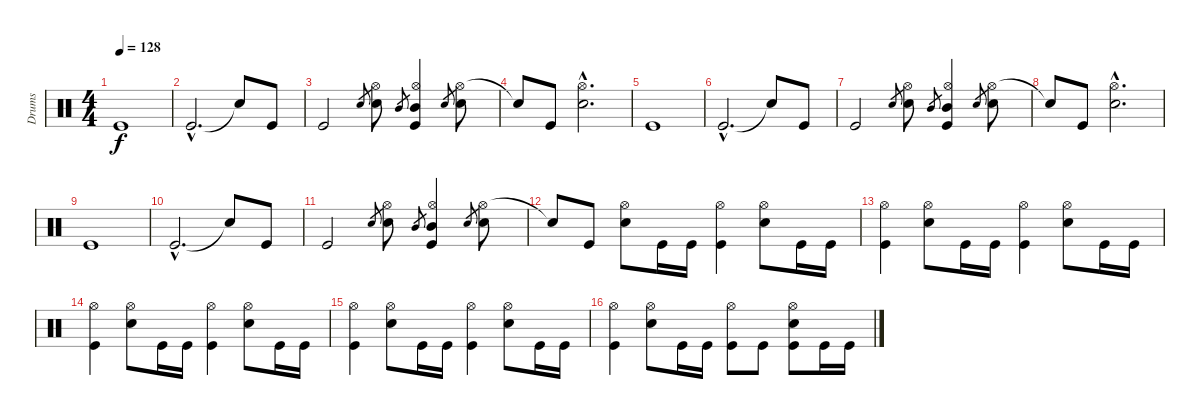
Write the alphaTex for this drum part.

\track ("Drums" "Drums") {instrument percussion}
\staff {score}
\articulation defaults
\ts (4 4)
\tempo 128
\clef neutral
\ks c "Kick (hit)".1{dy f}
|
"Kick (hit)"{hac}.2{d} "Snare (hit)"{t}.8 "Kick (hit)".8 |
"Kick (hit)".2 "Snare (hit) 2".8{gr} ("Hi-Hat (open)" "Snare (hit) 2").8 "Mid Tom (hit)".8{gr} ("Hi-Hat (open)" "Mid Tom (hit)" "Kick (hit)").4 "Snare (hit) 2".8{gr} ("Hi-Hat (open)" "Snare (hit) 2").8 |
"Snare (hit)"{t}.8 "Kick (hit)".8 ("Hi-Hat (open)"{hac} "Snare (hit) 2"{hac}).2{d} |
"Kick (hit)".1 |
"Kick (hit)"{hac}.2{d} "Snare (hit)"{t}.8 "Kick (hit)".8 |
"Kick (hit)".2 "Snare (hit) 2".8{gr} ("Hi-Hat (open)" "Snare (hit) 2").8 "Mid Tom (hit)".8{gr} ("Hi-Hat (open)" "Mid Tom (hit)" "Kick (hit)").4 "Snare (hit) 2".8{gr} ("Hi-Hat (open)" "Snare (hit) 2").8 |
"Snare (hit)"{t}.8 "Kick (hit)".8 ("Hi-Hat (open)"{hac} "Snare (hit) 2"{hac}).2{d} |
"Kick (hit)".1 |
"Kick (hit)"{hac}.2{d} "Snare (hit)"{t}.8 "Kick (hit)".8 |
"Kick (hit)".2 "Snare (hit) 2".8{gr} ("Hi-Hat (open)" "Snare (hit) 2").8 "Mid Tom (hit)".8{gr} ("Hi-Hat (open)" "Mid Tom (hit)" "Kick (hit)").4 "Snare (hit) 2".8{gr} ("Hi-Hat (open)" "Snare (hit) 2").8 |
"Snare (hit)"{t}.8 "Kick (hit)".8 ("Hi-Hat (open)" "Snare (hit) 2").8 "Kick (hit)".16 "Kick (hit)".16 ("Hi-Hat (open)" "Kick (hit)").4 ("Hi-Hat (open)" "Snare (hit) 2").8 "Kick (hit)".16 "Kick (hit)".16 |
("Hi-Hat (open)" "Kick (hit)").4 ("Hi-Hat (open)" "Snare (hit) 2").8 "Kick (hit)".16 "Kick (hit)".16 ("Hi-Hat (open)" "Kick (hit)").4 ("Hi-Hat (open)" "Snare (hit) 2").8 "Kick (hit)".16 "Kick (hit)".16 |
("Hi-Hat (open)" "Kick (hit)").4 ("Hi-Hat (open)" "Snare (hit) 2").8 "Kick (hit)".16 "Kick (hit)".16 ("Hi-Hat (open)" "Kick (hit)").4 ("Hi-Hat (open)" "Snare (hit) 2").8 "Kick (hit)".16 "Kick (hit)".16 |
("Hi-Hat (open)" "Kick (hit)").4 ("Hi-Hat (open)" "Snare (hit) 2").8 "Kick (hit)".16 "Kick (hit)".16 ("Hi-Hat (open)" "Kick (hit)").4 ("Hi-Hat (open)" "Snare (hit) 2").8 "Kick (hit)".16 "Kick (hit)".16 |
("Hi-Hat (open)" "Kick (hit)").4 ("Hi-Hat (open)" "Snare (hit) 2").8 "Kick (hit)".16 "Kick (hit)".16 ("Hi-Hat (open)" "Kick (hit)").8 "Kick (hit)".8 ("Hi-Hat (open)" "Snare (hit) 2" "Kick (hit)").8 "Kick (hit)".16 "Kick (hit)".16
